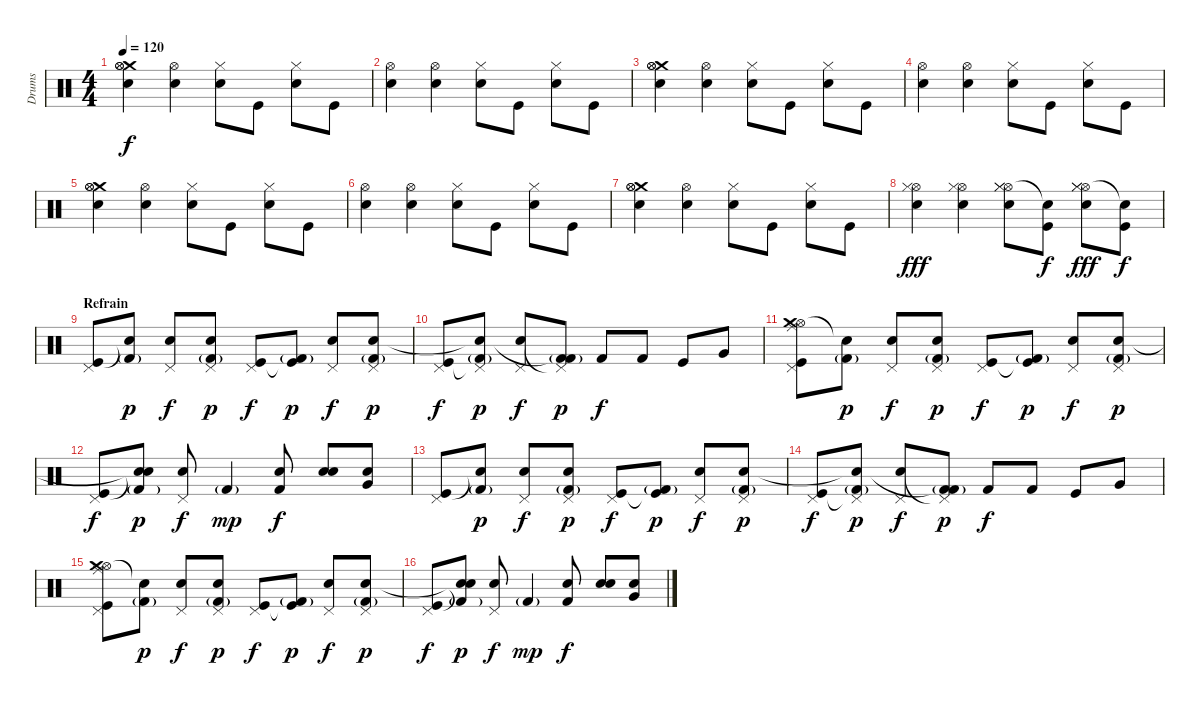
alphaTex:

\track ("Drums" "Drums") {instrument percussion}
\staff {score}
\articulation defaults
\ts (4 4)
\tempo 120
\clef neutral
\ks c
("Crash medium (hit)" "Hi-Hat (open)" "Electric Snare (hit)" "Hi-Hat (open)").4{dy f} ("Hi-Hat (open)" "Electric Snare (hit)").4 ("Hi-Hat (closed)" "Electric Snare (hit)").8 "Kick (hit)".8 ("Hi-Hat (closed)" "Electric Snare (hit)").8 "Kick (hit)".8 |
("Hi-Hat (open)" "Electric Snare (hit)").4 ("Hi-Hat (open)" "Electric Snare (hit)").4 ("Hi-Hat (closed)" "Electric Snare (hit)").8 "Kick (hit)".8 ("Hi-Hat (closed)" "Electric Snare (hit)").8 "Kick (hit)".8 |
("Crash medium (hit)" "Hi-Hat (open)" "Electric Snare (hit)" "Hi-Hat (open)").4 ("Hi-Hat (open)" "Electric Snare (hit)").4 ("Hi-Hat (closed)" "Electric Snare (hit)").8 "Kick (hit)".8 ("Hi-Hat (closed)" "Electric Snare (hit)").8 "Kick (hit)".8 |
("Hi-Hat (open)" "Electric Snare (hit)").4 ("Hi-Hat (open)" "Electric Snare (hit)").4 ("Hi-Hat (closed)" "Electric Snare (hit)").8 "Kick (hit)".8 ("Hi-Hat (closed)" "Electric Snare (hit)").8 "Kick (hit)".8 |
("Crash medium (hit)" "Hi-Hat (open)" "Electric Snare (hit)" "Hi-Hat (open)").4 ("Hi-Hat (open)" "Electric Snare (hit)").4 ("Hi-Hat (closed)" "Electric Snare (hit)").8 "Kick (hit)".8 ("Hi-Hat (closed)" "Electric Snare (hit)").8 "Kick (hit)".8 |
("Hi-Hat (open)" "Electric Snare (hit)").4 ("Hi-Hat (open)" "Electric Snare (hit)").4 ("Hi-Hat (closed)" "Electric Snare (hit)").8 "Kick (hit)".8 ("Hi-Hat (closed)" "Electric Snare (hit)").8 "Kick (hit)".8 |
("Crash medium (hit)" "Hi-Hat (open)" "Electric Snare (hit)" "Hi-Hat (open)").4 ("Hi-Hat (open)" "Electric Snare (hit)").4 ("Hi-Hat (closed)" "Electric Snare (hit)").8 "Kick (hit)".8 ("Hi-Hat (closed)" "Electric Snare (hit)").8 "Kick (hit)".8 |
("Hi-Hat (open)" "Electric Snare (hit)" "Hi-Hat (closed)").4{dy fff} ("Hi-Hat (open)" "Electric Snare (hit)" "Hi-Hat (closed)").4 ("Hi-Hat (open)" "Hi-Hat (closed)" "Electric Snare (hit)" "Hi-Hat (closed)").8 ("Snare (hit)"{t} "Kick (hit)").8{dy f} ("Hi-Hat (open)" "Hi-Hat (closed)" "Electric Snare (hit)" "Hi-Hat (closed)").8{dy fff} ("Snare (hit)"{t} "Kick (hit)").8{dy f} |
\section ("" "Refrain")
("Pedal Hi-Hat (hit)" "Kick (hit)").8 ("Kick (hit) 2"{g} "Snare (hit) 2"{t}).8{dy p} ("Pedal Hi-Hat (hit)" "Snare (hit) 2").8{dy f} ("Kick (hit) 2"{g} "Pedal Hi-Hat (hit)" "Snare (hit) 2").8{dy p} ("Pedal Hi-Hat (hit)" "Kick (hit)").8{dy f} ("Kick (hit) 2"{g} "Kick (hit)"{t}).8{dy p} ("Pedal Hi-Hat (hit)" "Snare (hit) 2").8{dy f} ("Kick (hit) 2"{g} "Pedal Hi-Hat (hit)" "Snare (hit) 2").8{dy p} |
("Pedal Hi-Hat (hit)" "Kick (hit)").8{dy f} ("Kick (hit) 2"{g} "Pedal Hi-Hat (hit)"{t} "Snare (hit) 2"{t}).8{dy p} ("Pedal Hi-Hat (hit)" "Snare (hit) 2").8{dy f} ("Kick (hit) 2"{g} "Pedal Hi-Hat (hit)"{t} "Kick (hit) 2"{t}).8{dy p} "Kick (hit) 2".8{dy f} "Kick (hit) 2".8 "Kick (hit)".8 "Very Low Tom (hit)".8 |
("Ride (middle)" "Hi-Hat (open)" "Crash medium (hit)" "Pedal Hi-Hat (hit)" "Kick (hit)").8 ("Kick (hit) 2"{g} "Snare (hit) 2"{t}).8{dy p} ("Pedal Hi-Hat (hit)" "Snare (hit) 2").8{dy f} ("Kick (hit) 2"{g} "Pedal Hi-Hat (hit)" "Snare (hit) 2").8{dy p} ("Pedal Hi-Hat (hit)" "Kick (hit)").8{dy f} ("Kick (hit) 2"{g} "Kick (hit)"{t}).8{dy p} ("Pedal Hi-Hat (hit)" "Snare (hit) 2").8{dy f} ("Kick (hit) 2"{g} "Pedal Hi-Hat (hit)" "Snare (hit) 2").8{dy p} |
("Pedal Hi-Hat (hit)" "Kick (hit)").8{dy f} ("Kick (hit) 2"{g} "Snare (hit)"{t} "Snare (hit)"{t}).8{dy p} ("Pedal Hi-Hat (hit)" "Snare (hit) 2").8{dy f} "Kick (hit) 2"{g}.4{dy mp} ("Kick (hit) 2" "Snare (hit) 2").8{dy f} ("Electric Snare (hit)" "Snare (hit) 2").8 ("Very Low Tom (hit)" "Snare (hit) 2").8 |
("Pedal Hi-Hat (hit)" "Kick (hit)").8 ("Kick (hit) 2"{g} "Snare (hit) 2"{t}).8{dy p} ("Pedal Hi-Hat (hit)" "Snare (hit) 2").8{dy f} ("Kick (hit) 2"{g} "Pedal Hi-Hat (hit)" "Snare (hit) 2").8{dy p} ("Pedal Hi-Hat (hit)" "Kick (hit)").8{dy f} ("Kick (hit) 2"{g} "Kick (hit)"{t}).8{dy p} ("Pedal Hi-Hat (hit)" "Snare (hit) 2").8{dy f} ("Kick (hit) 2"{g} "Pedal Hi-Hat (hit)" "Snare (hit) 2").8{dy p} |
("Pedal Hi-Hat (hit)" "Kick (hit)").8{dy f} ("Kick (hit) 2"{g} "Pedal Hi-Hat (hit)"{t} "Snare (hit) 2"{t}).8{dy p} ("Pedal Hi-Hat (hit)" "Snare (hit) 2").8{dy f} ("Kick (hit) 2"{g} "Pedal Hi-Hat (hit)"{t} "Kick (hit) 2"{t}).8{dy p} "Kick (hit) 2".8{dy f} "Kick (hit) 2".8 "Kick (hit)".8 "Very Low Tom (hit)".8 |
("Ride (middle)" "Hi-Hat (open)" "Crash medium (hit)" "Pedal Hi-Hat (hit)" "Kick (hit)").8 ("Kick (hit) 2"{g} "Snare (hit) 2"{t}).8{dy p} ("Pedal Hi-Hat (hit)" "Snare (hit) 2").8{dy f} ("Kick (hit) 2"{g} "Pedal Hi-Hat (hit)" "Snare (hit) 2").8{dy p} ("Pedal Hi-Hat (hit)" "Kick (hit)").8{dy f} ("Kick (hit) 2"{g} "Kick (hit)"{t}).8{dy p} ("Pedal Hi-Hat (hit)" "Snare (hit) 2").8{dy f} ("Kick (hit) 2"{g} "Pedal Hi-Hat (hit)" "Snare (hit) 2").8{dy p} |
("Pedal Hi-Hat (hit)" "Kick (hit)").8{dy f} ("Kick (hit) 2"{g} "Snare (hit)"{t} "Snare (hit)"{t}).8{dy p} ("Pedal Hi-Hat (hit)" "Snare (hit) 2").8{dy f} "Kick (hit) 2"{g}.4{dy mp} ("Kick (hit) 2" "Snare (hit) 2").8{dy f} ("Electric Snare (hit)" "Snare (hit) 2").8 ("Very Low Tom (hit)" "Snare (hit) 2").8
